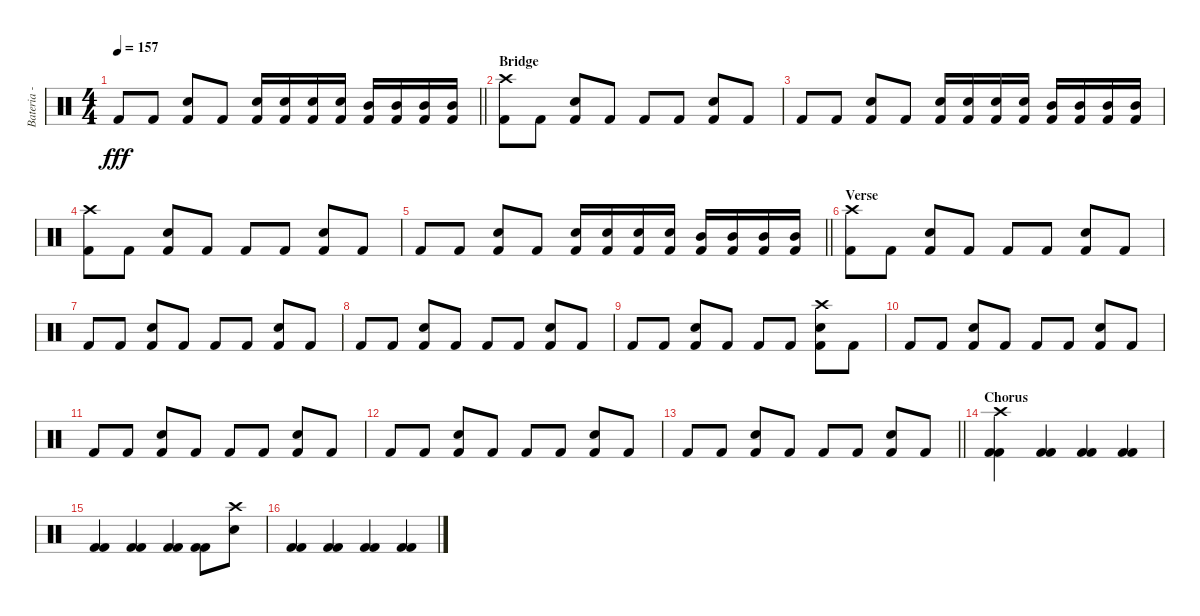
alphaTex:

\track ("Bateria - Larzon" "Bateria - ") {instrument percussion}
\staff {score}
\articulation defaults
\ts (4 4)
\tempo 157
\clef neutral
\barLineRight lightlight
\ks c "Kick (hit) 2".8{dy fff} "Kick (hit) 2".8
("Kick (hit) 2" "Snare (hit) 2").8 "Kick (hit) 2".8 ("Kick (hit) 2" "Snare (hit) 2").16 ("Kick (hit) 2" "Snare (hit) 2").16 ("Kick (hit) 2" "Snare (hit) 2").16 ("Kick (hit) 2" "Snare (hit) 2").16 ("Kick (hit) 2" "Mid Tom (hit)").16 ("Kick (hit) 2" "Mid Tom (hit)").16 ("Kick (hit) 2" "Mid Tom (hit)").16 ("Kick (hit) 2" "Mid Tom (hit)").16 |
\section ("" "Bridge")
("Kick (hit) 2" "Crash high (hit)").8 "Kick (hit) 2".8 ("Kick (hit) 2" "Snare (hit) 2").8 "Kick (hit) 2".8 "Kick (hit) 2".8 "Kick (hit) 2".8 ("Kick (hit) 2" "Snare (hit) 2").8 "Kick (hit) 2".8 |
"Kick (hit) 2".8 "Kick (hit) 2".8 ("Kick (hit) 2" "Snare (hit) 2").8 "Kick (hit) 2".8 ("Kick (hit) 2" "Snare (hit) 2").16 ("Kick (hit) 2" "Snare (hit) 2").16 ("Kick (hit) 2" "Snare (hit) 2").16 ("Kick (hit) 2" "Snare (hit) 2").16 ("Kick (hit) 2" "Mid Tom (hit)").16 ("Kick (hit) 2" "Mid Tom (hit)").16 ("Kick (hit) 2" "Mid Tom (hit)").16 ("Kick (hit) 2" "Mid Tom (hit)").16 |
("Kick (hit) 2" "Crash high (hit)").8 "Kick (hit) 2".8 ("Kick (hit) 2" "Snare (hit) 2").8 "Kick (hit) 2".8 "Kick (hit) 2".8 "Kick (hit) 2".8 ("Kick (hit) 2" "Snare (hit) 2").8 "Kick (hit) 2".8 |
\barLineRight lightlight "Kick (hit) 2".8 "Kick (hit) 2".8
("Kick (hit) 2" "Snare (hit) 2").8 "Kick (hit) 2".8 ("Kick (hit) 2" "Snare (hit) 2").16 ("Kick (hit) 2" "Snare (hit) 2").16 ("Kick (hit) 2" "Snare (hit) 2").16 ("Kick (hit) 2" "Snare (hit) 2").16 ("Kick (hit) 2" "Mid Tom (hit)").16 ("Kick (hit) 2" "Mid Tom (hit)").16 ("Kick (hit) 2" "Mid Tom (hit)").16 ("Kick (hit) 2" "Mid Tom (hit)").16 |
\section ("" "Verse")
("Kick (hit) 2" "Crash high (hit)").8 "Kick (hit) 2".8 ("Kick (hit) 2" "Snare (hit) 2").8 "Kick (hit) 2".8 "Kick (hit) 2".8 "Kick (hit) 2".8 ("Kick (hit) 2" "Snare (hit) 2").8 "Kick (hit) 2".8 |
"Kick (hit) 2".8 "Kick (hit) 2".8 ("Kick (hit) 2" "Snare (hit) 2").8 "Kick (hit) 2".8 "Kick (hit) 2".8 "Kick (hit) 2".8 ("Kick (hit) 2" "Snare (hit) 2").8 "Kick (hit) 2".8 |
"Kick (hit) 2".8 "Kick (hit) 2".8 ("Kick (hit) 2" "Snare (hit) 2").8 "Kick (hit) 2".8 "Kick (hit) 2".8 "Kick (hit) 2".8 ("Kick (hit) 2" "Snare (hit) 2").8 "Kick (hit) 2".8 |
"Kick (hit) 2".8 "Kick (hit) 2".8 ("Kick (hit) 2" "Snare (hit) 2").8 "Kick (hit) 2".8 "Kick (hit) 2".8 "Kick (hit) 2".8 ("Kick (hit) 2" "Crash high (hit)" "Snare (hit) 2").8 "Kick (hit) 2".8 |
"Kick (hit) 2".8 "Kick (hit) 2".8 ("Kick (hit) 2" "Snare (hit) 2").8 "Kick (hit) 2".8 "Kick (hit) 2".8 "Kick (hit) 2".8 ("Kick (hit) 2" "Snare (hit) 2").8 "Kick (hit) 2".8 |
"Kick (hit) 2".8 "Kick (hit) 2".8 ("Kick (hit) 2" "Snare (hit) 2").8 "Kick (hit) 2".8 "Kick (hit) 2".8 "Kick (hit) 2".8 ("Kick (hit) 2" "Snare (hit) 2").8 "Kick (hit) 2".8 |
"Kick (hit) 2".8 "Kick (hit) 2".8 ("Kick (hit) 2" "Snare (hit) 2").8 "Kick (hit) 2".8 "Kick (hit) 2".8 "Kick (hit) 2".8 ("Kick (hit) 2" "Snare (hit) 2").8 "Kick (hit) 2".8 |
\barLineRight lightlight "Kick (hit) 2".8 "Kick (hit) 2".8
("Kick (hit) 2" "Snare (hit) 2").8 "Kick (hit) 2".8 "Kick (hit) 2".8 "Kick (hit) 2".8 ("Kick (hit) 2" "Snare (hit) 2").8 "Kick (hit) 2".8 |
\section ("" "Chorus")
("Kick (hit) 2" "Kick (hit) 2" "Crash high (hit)").4 ("Kick (hit) 2" "Kick (hit) 2").4 ("Kick (hit) 2" "Kick (hit) 2").4 ("Kick (hit) 2" "Kick (hit) 2").4 |
("Kick (hit) 2" "Kick (hit) 2").4 ("Kick (hit) 2" "Kick (hit) 2").4 ("Kick (hit) 2" "Kick (hit) 2").4 ("Kick (hit) 2" "Kick (hit) 2").8 ("Crash high (hit)" "Snare (hit) 2").8 |
("Kick (hit) 2" "Kick (hit) 2").4 ("Kick (hit) 2" "Kick (hit) 2").4 ("Kick (hit) 2" "Kick (hit) 2").4 ("Kick (hit) 2" "Kick (hit) 2").4
